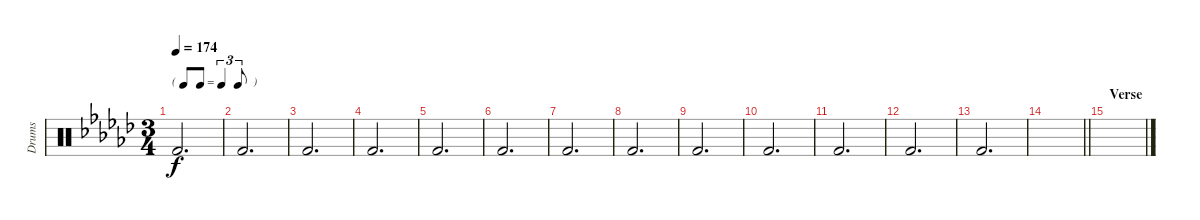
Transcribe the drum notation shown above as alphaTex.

\track ("Drums" "Drums") {instrument percussion}
\staff {score}
\articulation defaults
\ts (3 4)
\tf triplet8th
\tempo 174
\clef neutral
\ks ebminor "Kick (hit) 2".2{d dy f}
|
"Kick (hit) 2".2{d} |
"Kick (hit) 2".2{d} |
"Kick (hit) 2".2{d} |
"Kick (hit) 2".2{d} |
"Kick (hit) 2".2{d} |
"Kick (hit) 2".2{d} |
"Kick (hit) 2".2{d} |
"Kick (hit) 2".2{d} |
"Kick (hit) 2".2{d} |
"Kick (hit) 2".2{d} |
"Kick (hit) 2".2{d} |
"Kick (hit) 2".2{d} |
\barLineRight lightlight
|
\section ("" "Verse")
